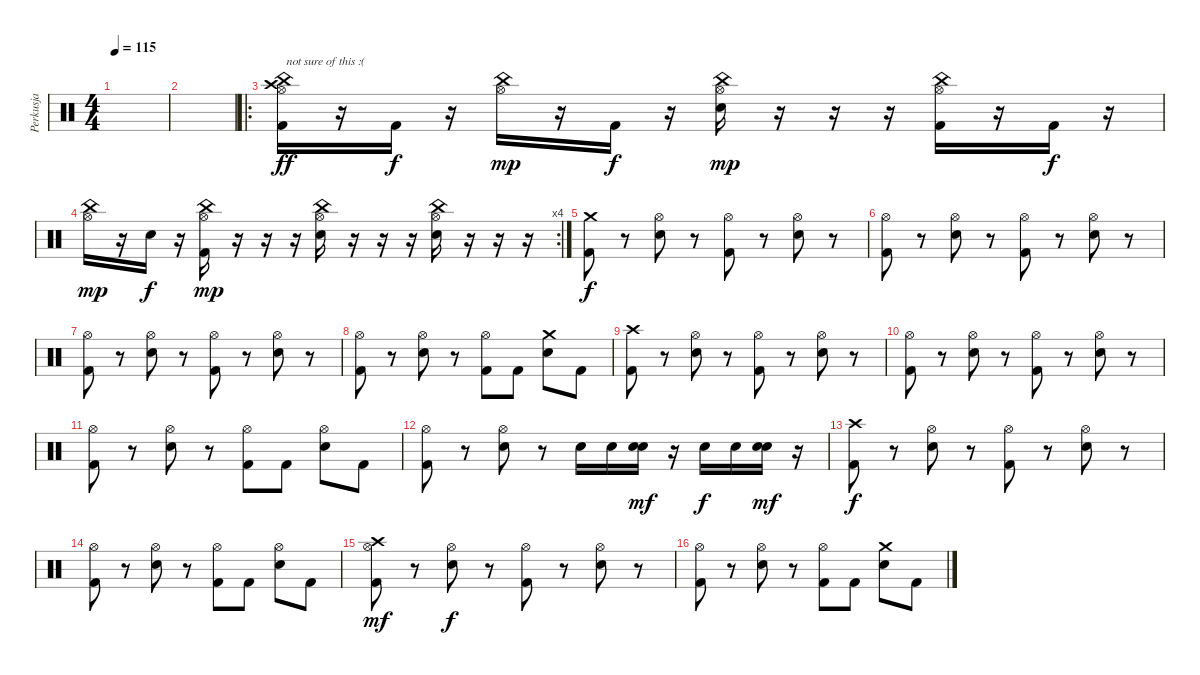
\track ("Perkusja" "Perkusja") {instrument percussion}
\staff {score}
\articulation defaults
\ts (4 4)
\tempo 115
\clef neutral
\ks c
|
|
\ro
("China (hit)" "Hi-Hat (open)" "Crash high (hit)" "Kick (hit) 2").16{txt "not sure of this :(" dy ff} r.16 "Kick (hit) 2".16{dy f} r.16 ("China (hit)" "Hi-Hat (open)").16{dy mp} r.16 "Kick (hit) 2".16{dy f} r.16 ("China (hit)" "Hi-Hat (open)" "Electric Snare (hit)").16{dy mp} r.16 r.16 r.16 ("China (hit)" "Hi-Hat (open)" "Kick (hit) 2").16 r.16 "Kick (hit) 2".16{dy f} r.16 |
\rc 4
("China (hit)" "Hi-Hat (open)").16{dy mp} r.16 "Electric Snare (hit)".16{dy f} r.16 ("China (hit)" "Hi-Hat (open)" "Kick (hit) 2").16{dy mp} r.16 r.16 r.16 ("China (hit)" "Hi-Hat (open)" "Electric Snare (hit)").16 r.16 r.16 r.16 ("China (hit)" "Hi-Hat (open)" "Electric Snare (hit)").16 r.16 r.16 r.16 |
("Crash medium (hit)" "Kick (hit) 2").8{dy f} r.8 ("Hi-Hat (open)" "Electric Snare (hit)").8 r.8 ("Hi-Hat (open)" "Kick (hit) 2").8 r.8 ("Hi-Hat (open)" "Electric Snare (hit)").8 r.8 |
("Hi-Hat (open)" "Kick (hit) 2").8 r.8 ("Hi-Hat (open)" "Electric Snare (hit)").8 r.8 ("Hi-Hat (open)" "Kick (hit) 2").8 r.8 ("Hi-Hat (open)" "Electric Snare (hit)").8 r.8 |
("Hi-Hat (open)" "Kick (hit) 2").8 r.8 ("Hi-Hat (open)" "Electric Snare (hit)").8 r.8 ("Hi-Hat (open)" "Kick (hit) 2").8 r.8 ("Hi-Hat (open)" "Electric Snare (hit)").8 r.8 |
("Hi-Hat (open)" "Kick (hit) 2").8 r.8 ("Hi-Hat (open)" "Electric Snare (hit)").8 r.8 ("Hi-Hat (open)" "Kick (hit) 2").8 "Kick (hit) 2".8 ("Crash medium (hit)" "Electric Snare (hit)").8 "Kick (hit) 2".8 |
("Crash high (hit)" "Kick (hit) 2").8 r.8 ("Hi-Hat (open)" "Electric Snare (hit)").8 r.8 ("Hi-Hat (open)" "Kick (hit) 2").8 r.8 ("Hi-Hat (open)" "Electric Snare (hit)").8 r.8 |
("Hi-Hat (open)" "Kick (hit) 2").8 r.8 ("Hi-Hat (open)" "Electric Snare (hit)").8 r.8 ("Hi-Hat (open)" "Kick (hit) 2").8 r.8 ("Hi-Hat (open)" "Electric Snare (hit)").8 r.8 |
("Hi-Hat (open)" "Kick (hit) 2").8 r.8 ("Hi-Hat (open)" "Electric Snare (hit)").8 r.8 ("Hi-Hat (open)" "Kick (hit) 2").8 "Kick (hit) 2".8 ("Hi-Hat (open)" "Electric Snare (hit)").8 "Kick (hit) 2".8 |
("Hi-Hat (open)" "Kick (hit) 2").8 r.8 ("Hi-Hat (open)" "Electric Snare (hit)").8 r.8 "Electric Snare (hit)".16 "Electric Snare (hit)".16 ("Electric Snare (hit)" "Snare (hit) 2").16{dy mf} r.16 "Electric Snare (hit)".16{dy f} "Electric Snare (hit)".16 ("Electric Snare (hit)" "Snare (hit) 2").16{dy mf} r.16 |
("Crash high (hit)" "Kick (hit) 2").8{dy f} r.8 ("Hi-Hat (open)" "Electric Snare (hit)").8 r.8 ("Hi-Hat (open)" "Kick (hit) 2").8 r.8 ("Hi-Hat (open)" "Electric Snare (hit)").8 r.8 |
("Hi-Hat (open)" "Kick (hit) 2").8 r.8 ("Hi-Hat (open)" "Electric Snare (hit)").8 r.8 ("Hi-Hat (open)" "Kick (hit) 2").8 "Kick (hit) 2".8 ("Hi-Hat (open)" "Electric Snare (hit)").8 "Kick (hit) 2".8 |
("Hi-Hat (open)" "Crash high (hit)" "Kick (hit) 2").8{dy mf} r.8 ("Hi-Hat (open)" "Electric Snare (hit)").8{dy f} r.8 ("Hi-Hat (open)" "Kick (hit) 2").8 r.8 ("Hi-Hat (open)" "Electric Snare (hit)").8 r.8 |
("Hi-Hat (open)" "Kick (hit) 2").8 r.8 ("Hi-Hat (open)" "Electric Snare (hit)").8 r.8 ("Hi-Hat (open)" "Kick (hit) 2").8 "Kick (hit) 2".8 ("Crash medium (hit)" "Electric Snare (hit)").8 "Kick (hit) 2".8
